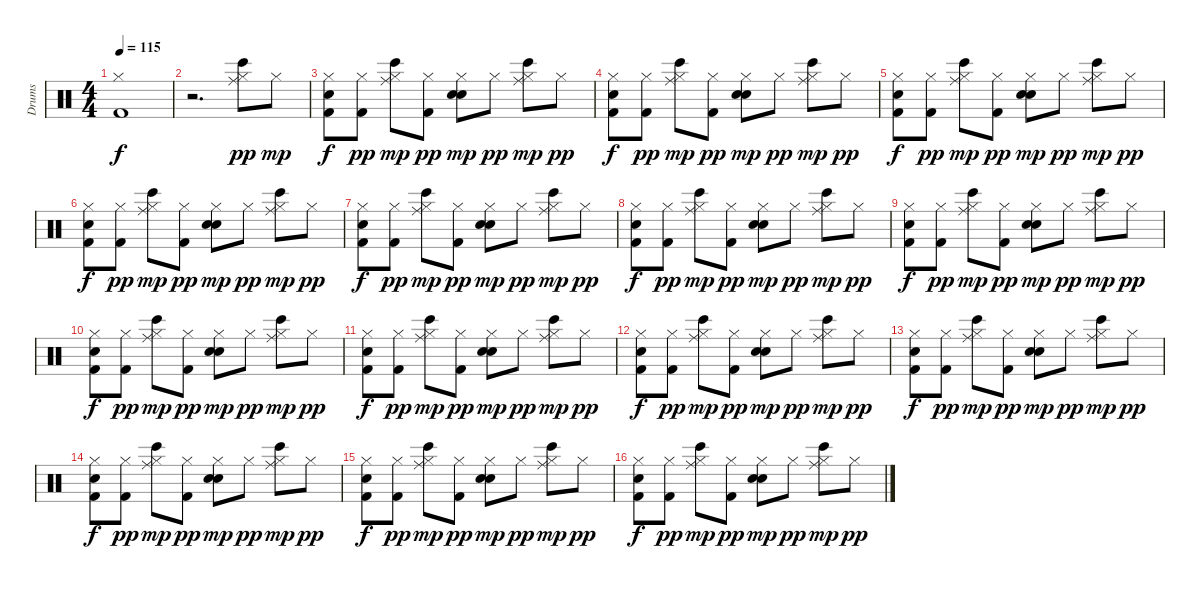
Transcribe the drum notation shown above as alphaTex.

\track ("Drums" "Drums") {instrument percussion}
\staff {score}
\articulation defaults
\ts (4 4)
\tempo 115
\clef neutral
\ks c
("Hi-Hat (closed)" "Kick (hit) 2").1{dy f} |
r.2{d} ("Hi-Hat (closed)" "Ride (middle)" "Bongo High (hit)").8{dy pp} "Hi-Hat (closed)".8{dy mp} |
("Hi-Hat (closed)" "Hand Clap (hit)" "Kick (hit) 2").8{dy f} ("Hi-Hat (closed)" "Kick (hit) 2").8{dy pp} ("Hi-Hat (closed)" "Ride (middle)" "Bongo High (hit)").8{dy mp} ("Hi-Hat (closed)" "Kick (hit) 2").8{dy pp} ("Hi-Hat (closed)" "Hand Clap (hit)" "Electric Snare (hit)").8{dy mp} "Hi-Hat (closed)".8{dy pp} ("Hi-Hat (closed)" "Ride (middle)" "Bongo High (hit)").8{dy mp} "Hi-Hat (closed)".8{dy pp} |
("Hi-Hat (closed)" "Hand Clap (hit)" "Kick (hit) 2").8{dy f} ("Hi-Hat (closed)" "Kick (hit) 2").8{dy pp} ("Hi-Hat (closed)" "Ride (middle)" "Bongo High (hit)").8{dy mp} ("Hi-Hat (closed)" "Kick (hit) 2").8{dy pp} ("Hi-Hat (closed)" "Hand Clap (hit)" "Electric Snare (hit)").8{dy mp} "Hi-Hat (closed)".8{dy pp} ("Hi-Hat (closed)" "Ride (middle)" "Bongo High (hit)").8{dy mp} "Hi-Hat (closed)".8{dy pp} |
("Hi-Hat (closed)" "Hand Clap (hit)" "Kick (hit) 2").8{dy f} ("Hi-Hat (closed)" "Kick (hit) 2").8{dy pp} ("Hi-Hat (closed)" "Ride (middle)" "Bongo High (hit)").8{dy mp} ("Hi-Hat (closed)" "Kick (hit) 2").8{dy pp} ("Hi-Hat (closed)" "Hand Clap (hit)" "Electric Snare (hit)").8{dy mp} "Hi-Hat (closed)".8{dy pp} ("Hi-Hat (closed)" "Ride (middle)" "Bongo High (hit)").8{dy mp} "Hi-Hat (closed)".8{dy pp} |
("Hi-Hat (closed)" "Hand Clap (hit)" "Kick (hit) 2").8{dy f} ("Hi-Hat (closed)" "Kick (hit) 2").8{dy pp} ("Hi-Hat (closed)" "Ride (middle)" "Bongo High (hit)").8{dy mp} ("Hi-Hat (closed)" "Kick (hit) 2").8{dy pp} ("Hi-Hat (closed)" "Hand Clap (hit)" "Electric Snare (hit)").8{dy mp} "Hi-Hat (closed)".8{dy pp} ("Hi-Hat (closed)" "Ride (middle)" "Bongo High (hit)").8{dy mp} "Hi-Hat (closed)".8{dy pp} |
("Hi-Hat (closed)" "Hand Clap (hit)" "Kick (hit) 2").8{dy f} ("Hi-Hat (closed)" "Kick (hit) 2").8{dy pp} ("Hi-Hat (closed)" "Ride (middle)" "Bongo High (hit)").8{dy mp} ("Hi-Hat (closed)" "Kick (hit) 2").8{dy pp} ("Hi-Hat (closed)" "Hand Clap (hit)" "Electric Snare (hit)").8{dy mp} "Hi-Hat (closed)".8{dy pp} ("Hi-Hat (closed)" "Ride (middle)" "Bongo High (hit)").8{dy mp} "Hi-Hat (closed)".8{dy pp} |
("Hi-Hat (closed)" "Hand Clap (hit)" "Kick (hit) 2").8{dy f} ("Hi-Hat (closed)" "Kick (hit) 2").8{dy pp} ("Hi-Hat (closed)" "Ride (middle)" "Bongo High (hit)").8{dy mp} ("Hi-Hat (closed)" "Kick (hit) 2").8{dy pp} ("Hi-Hat (closed)" "Hand Clap (hit)" "Electric Snare (hit)").8{dy mp} "Hi-Hat (closed)".8{dy pp} ("Hi-Hat (closed)" "Ride (middle)" "Bongo High (hit)").8{dy mp} "Hi-Hat (closed)".8{dy pp} |
("Hi-Hat (closed)" "Hand Clap (hit)" "Kick (hit) 2").8{dy f} ("Hi-Hat (closed)" "Kick (hit) 2").8{dy pp} ("Hi-Hat (closed)" "Ride (middle)" "Bongo High (hit)").8{dy mp} ("Hi-Hat (closed)" "Kick (hit) 2").8{dy pp} ("Hi-Hat (closed)" "Hand Clap (hit)" "Electric Snare (hit)").8{dy mp} "Hi-Hat (closed)".8{dy pp} ("Hi-Hat (closed)" "Ride (middle)" "Bongo High (hit)").8{dy mp} "Hi-Hat (closed)".8{dy pp} |
("Hi-Hat (closed)" "Hand Clap (hit)" "Kick (hit) 2").8{dy f} ("Hi-Hat (closed)" "Kick (hit) 2").8{dy pp} ("Hi-Hat (closed)" "Ride (middle)" "Bongo High (hit)").8{dy mp} ("Hi-Hat (closed)" "Kick (hit) 2").8{dy pp} ("Hi-Hat (closed)" "Hand Clap (hit)" "Electric Snare (hit)").8{dy mp} "Hi-Hat (closed)".8{dy pp} ("Hi-Hat (closed)" "Ride (middle)" "Bongo High (hit)").8{dy mp} "Hi-Hat (closed)".8{dy pp} |
("Hi-Hat (closed)" "Hand Clap (hit)" "Kick (hit) 2").8{dy f} ("Hi-Hat (closed)" "Kick (hit) 2").8{dy pp} ("Hi-Hat (closed)" "Ride (middle)" "Bongo High (hit)").8{dy mp} ("Hi-Hat (closed)" "Kick (hit) 2").8{dy pp} ("Hi-Hat (closed)" "Hand Clap (hit)" "Electric Snare (hit)").8{dy mp} "Hi-Hat (closed)".8{dy pp} ("Hi-Hat (closed)" "Ride (middle)" "Bongo High (hit)").8{dy mp} "Hi-Hat (closed)".8{dy pp} |
("Hi-Hat (closed)" "Hand Clap (hit)" "Kick (hit) 2").8{dy f} ("Hi-Hat (closed)" "Kick (hit) 2").8{dy pp} ("Hi-Hat (closed)" "Ride (middle)" "Bongo High (hit)").8{dy mp} ("Hi-Hat (closed)" "Kick (hit) 2").8{dy pp} ("Hi-Hat (closed)" "Hand Clap (hit)" "Electric Snare (hit)").8{dy mp} "Hi-Hat (closed)".8{dy pp} ("Hi-Hat (closed)" "Ride (middle)" "Bongo High (hit)").8{dy mp} "Hi-Hat (closed)".8{dy pp} |
("Hi-Hat (closed)" "Hand Clap (hit)" "Kick (hit) 2").8{dy f} ("Hi-Hat (closed)" "Kick (hit) 2").8{dy pp} ("Hi-Hat (closed)" "Ride (middle)" "Bongo High (hit)").8{dy mp} ("Hi-Hat (closed)" "Kick (hit) 2").8{dy pp} ("Hi-Hat (closed)" "Hand Clap (hit)" "Electric Snare (hit)").8{dy mp} "Hi-Hat (closed)".8{dy pp} ("Hi-Hat (closed)" "Ride (middle)" "Bongo High (hit)").8{dy mp} "Hi-Hat (closed)".8{dy pp} |
("Hi-Hat (closed)" "Hand Clap (hit)" "Kick (hit) 2").8{dy f} ("Hi-Hat (closed)" "Kick (hit) 2").8{dy pp} ("Hi-Hat (closed)" "Ride (middle)" "Bongo High (hit)").8{dy mp} ("Hi-Hat (closed)" "Kick (hit) 2").8{dy pp} ("Hi-Hat (closed)" "Hand Clap (hit)" "Electric Snare (hit)").8{dy mp} "Hi-Hat (closed)".8{dy pp} ("Hi-Hat (closed)" "Ride (middle)" "Bongo High (hit)").8{dy mp} "Hi-Hat (closed)".8{dy pp} |
("Hi-Hat (closed)" "Hand Clap (hit)" "Kick (hit) 2").8{dy f} ("Hi-Hat (closed)" "Kick (hit) 2").8{dy pp} ("Hi-Hat (closed)" "Ride (middle)" "Bongo High (hit)").8{dy mp} ("Hi-Hat (closed)" "Kick (hit) 2").8{dy pp} ("Hi-Hat (closed)" "Hand Clap (hit)" "Electric Snare (hit)").8{dy mp} "Hi-Hat (closed)".8{dy pp} ("Hi-Hat (closed)" "Ride (middle)" "Bongo High (hit)").8{dy mp} "Hi-Hat (closed)".8{dy pp} |
("Hi-Hat (closed)" "Hand Clap (hit)" "Kick (hit) 2").8{dy f} ("Hi-Hat (closed)" "Kick (hit) 2").8{dy pp} ("Hi-Hat (closed)" "Ride (middle)" "Bongo High (hit)").8{dy mp} ("Hi-Hat (closed)" "Kick (hit) 2").8{dy pp} ("Hi-Hat (closed)" "Hand Clap (hit)" "Electric Snare (hit)").8{dy mp} "Hi-Hat (closed)".8{dy pp} ("Hi-Hat (closed)" "Ride (middle)" "Bongo High (hit)").8{dy mp} "Hi-Hat (closed)".8{dy pp}
